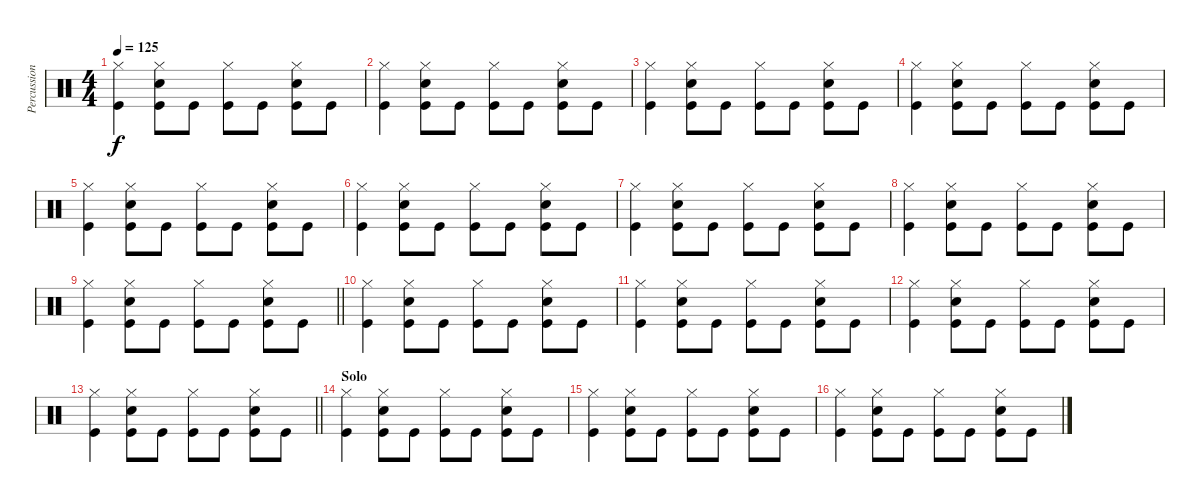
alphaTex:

\track ("Percussion" "Percussion") {instrument percussion}
\staff {score}
\articulation defaults
\ts (4 4)
\tempo 125
\clef neutral
\ks c
("Hi-Hat (closed)" "Kick (hit)").4{dy f} ("Hi-Hat (closed)" "Kick (hit)" "Snare (hit) 2").8 "Kick (hit)".8 ("Hi-Hat (closed)" "Kick (hit)").8 "Kick (hit)".8 ("Hi-Hat (closed)" "Kick (hit)" "Snare (hit) 2").8 "Kick (hit)".8 |
("Hi-Hat (closed)" "Kick (hit)").4 ("Hi-Hat (closed)" "Kick (hit)" "Snare (hit) 2").8 "Kick (hit)".8 ("Hi-Hat (closed)" "Kick (hit)").8 "Kick (hit)".8 ("Hi-Hat (closed)" "Kick (hit)" "Snare (hit) 2").8 "Kick (hit)".8 |
("Hi-Hat (closed)" "Kick (hit)").4 ("Hi-Hat (closed)" "Kick (hit)" "Snare (hit) 2").8 "Kick (hit)".8 ("Hi-Hat (closed)" "Kick (hit)").8 "Kick (hit)".8 ("Hi-Hat (closed)" "Kick (hit)" "Snare (hit) 2").8 "Kick (hit)".8 |
("Hi-Hat (closed)" "Kick (hit)").4 ("Hi-Hat (closed)" "Kick (hit)" "Snare (hit) 2").8 "Kick (hit)".8 ("Hi-Hat (closed)" "Kick (hit)").8 "Kick (hit)".8 ("Hi-Hat (closed)" "Kick (hit)" "Snare (hit) 2").8 "Kick (hit)".8 |
("Hi-Hat (closed)" "Kick (hit)").4 ("Hi-Hat (closed)" "Kick (hit)" "Snare (hit) 2").8 "Kick (hit)".8 ("Hi-Hat (closed)" "Kick (hit)").8 "Kick (hit)".8 ("Hi-Hat (closed)" "Kick (hit)" "Snare (hit) 2").8 "Kick (hit)".8 |
("Hi-Hat (closed)" "Kick (hit)").4 ("Hi-Hat (closed)" "Kick (hit)" "Snare (hit) 2").8 "Kick (hit)".8 ("Hi-Hat (closed)" "Kick (hit)").8 "Kick (hit)".8 ("Hi-Hat (closed)" "Kick (hit)" "Snare (hit) 2").8 "Kick (hit)".8 |
("Hi-Hat (closed)" "Kick (hit)").4 ("Hi-Hat (closed)" "Kick (hit)" "Snare (hit) 2").8 "Kick (hit)".8 ("Hi-Hat (closed)" "Kick (hit)").8 "Kick (hit)".8 ("Hi-Hat (closed)" "Kick (hit)" "Snare (hit) 2").8 "Kick (hit)".8 |
("Hi-Hat (closed)" "Kick (hit)").4 ("Hi-Hat (closed)" "Kick (hit)" "Snare (hit) 2").8 "Kick (hit)".8 ("Hi-Hat (closed)" "Kick (hit)").8 "Kick (hit)".8 ("Hi-Hat (closed)" "Kick (hit)" "Snare (hit) 2").8 "Kick (hit)".8 |
\barLineRight lightlight
("Hi-Hat (closed)" "Kick (hit)").4 ("Hi-Hat (closed)" "Kick (hit)" "Snare (hit) 2").8 "Kick (hit)".8 ("Hi-Hat (closed)" "Kick (hit)").8 "Kick (hit)".8 ("Hi-Hat (closed)" "Kick (hit)" "Snare (hit) 2").8 "Kick (hit)".8 |
("Hi-Hat (closed)" "Kick (hit)").4 ("Hi-Hat (closed)" "Kick (hit)" "Snare (hit) 2").8 "Kick (hit)".8 ("Hi-Hat (closed)" "Kick (hit)").8 "Kick (hit)".8 ("Hi-Hat (closed)" "Kick (hit)" "Snare (hit) 2").8 "Kick (hit)".8 |
("Hi-Hat (closed)" "Kick (hit)").4 ("Hi-Hat (closed)" "Kick (hit)" "Snare (hit) 2").8 "Kick (hit)".8 ("Hi-Hat (closed)" "Kick (hit)").8 "Kick (hit)".8 ("Hi-Hat (closed)" "Kick (hit)" "Snare (hit) 2").8 "Kick (hit)".8 |
("Hi-Hat (closed)" "Kick (hit)").4 ("Hi-Hat (closed)" "Kick (hit)" "Snare (hit) 2").8 "Kick (hit)".8 ("Hi-Hat (closed)" "Kick (hit)").8 "Kick (hit)".8 ("Hi-Hat (closed)" "Kick (hit)" "Snare (hit) 2").8 "Kick (hit)".8 |
\barLineRight lightlight
("Hi-Hat (closed)" "Kick (hit)").4 ("Hi-Hat (closed)" "Kick (hit)" "Snare (hit) 2").8 "Kick (hit)".8 ("Hi-Hat (closed)" "Kick (hit)").8 "Kick (hit)".8 ("Hi-Hat (closed)" "Kick (hit)" "Snare (hit) 2").8 "Kick (hit)".8 |
\section ("" "Solo")
("Hi-Hat (closed)" "Kick (hit)").4 ("Hi-Hat (closed)" "Kick (hit)" "Snare (hit) 2").8 "Kick (hit)".8 ("Hi-Hat (closed)" "Kick (hit)").8 "Kick (hit)".8 ("Hi-Hat (closed)" "Kick (hit)" "Snare (hit) 2").8 "Kick (hit)".8 |
("Hi-Hat (closed)" "Kick (hit)").4 ("Hi-Hat (closed)" "Kick (hit)" "Snare (hit) 2").8 "Kick (hit)".8 ("Hi-Hat (closed)" "Kick (hit)").8 "Kick (hit)".8 ("Hi-Hat (closed)" "Kick (hit)" "Snare (hit) 2").8 "Kick (hit)".8 |
("Hi-Hat (closed)" "Kick (hit)").4 ("Hi-Hat (closed)" "Kick (hit)" "Snare (hit) 2").8 "Kick (hit)".8 ("Hi-Hat (closed)" "Kick (hit)").8 "Kick (hit)".8 ("Hi-Hat (closed)" "Kick (hit)" "Snare (hit) 2").8 "Kick (hit)".8
